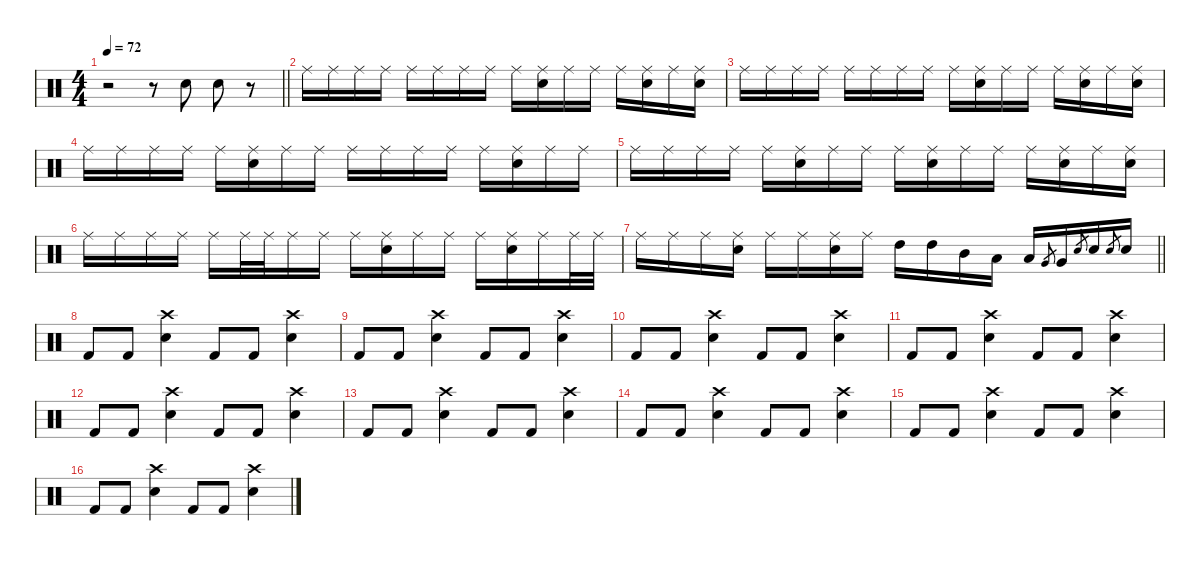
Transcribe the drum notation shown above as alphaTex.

\defaultSystemsLayout 4
\hideDynamics
\bracketExtendMode nobrackets
\singleTrackTrackNamePolicy hidden
\multiTrackTrackNamePolicy hidden
\otherSystemsTrackNameOrientation horizontal
\track ("Drums" "drm.") {defaultSystemsLayout 4 instrument percussion}
\staff {score}
\articulation defaults
\ts (4 4)
\tempo 72
\clef neutral
\barLineRight lightlight
\ks c
r.2{dy fff beam Down} r.8{beam Down} "Hand Clap (hit)".8{beam Down} "Hand Clap (hit)".8{beam Down} r.8{beam Down} |
"Ride (middle)".16{dy f beam Down} "Ride (middle)".16{dy mf beam Down} "Ride (middle)".16{dy mp beam Down} "Ride (middle)".16{dy ff beam Down} "Ride (middle)".16{dy mp beam Down} "Ride (middle)".16{beam Down} "Ride (middle)".16{dy f beam Down} "Ride (middle)".16{dy mp beam Down} "Ride (middle)".16{beam Down} ("Snare (hit) 2" "Ride (middle)").16{dy f beam Down} "Ride (middle)".16{dy mp beam Down} "Ride (middle)".16{beam Down} "Ride (middle)".16{dy f beam Down} ("Snare (hit) 2" "Ride (middle)").16{beam Down} "Ride (middle)".16{dy mf beam Down} ("Snare (hit) 2" "Ride (middle)").16{beam Down} |
"Ride (middle)".16{dy ff beam Down} "Ride (middle)".16{dy mp beam Down} "Ride (middle)".16{dy mf beam Down} "Ride (middle)".16{dy ff beam Down} "Ride (middle)".16{dy mp beam Down} "Ride (middle)".16{beam Down} "Ride (middle)".16{dy f beam Down} "Ride (middle)".16{dy mp beam Down} "Ride (middle)".16{dy f beam Down} ("Snare (hit) 2" "Ride (middle)").16{dy mf beam Down} "Ride (middle)".16{dy mp beam Down} "Ride (middle)".16{dy mf beam Down} "Ride (middle)".16{dy f beam Down} ("Snare (hit) 2" "Ride (middle)").16{dy mf beam Down} "Ride (middle)".16{dy ff beam Down} ("Snare (hit) 2" "Ride (middle)").16{dy mf beam Down} |
"Ride (middle)".16{dy f beam Down} "Ride (middle)".16{dy mp beam Down} "Ride (middle)".16{beam Down} "Ride (middle)".16{dy f beam Down} "Ride (middle)".16{dy mp beam Down} ("Snare (hit) 2" "Ride (middle)").16{dy f beam Down} "Ride (middle)".16{dy ff beam Down} "Ride (middle)".16{dy mf beam Down} "Ride (middle)".16{beam Down} "Ride (middle)".16{dy f beam Down} "Ride (middle)".16{dy mp beam Down} "Ride (middle)".16{dy f beam Down} "Ride (middle)".16{beam Down} ("Snare (hit) 2" "Ride (middle)").16{beam Down} "Ride (middle)".16{beam Down} "Ride (middle)".16{beam Down} |
"Ride (middle)".16{beam Down} "Ride (middle)".16{beam Down} "Ride (middle)".16{beam Down} "Ride (middle)".16{beam Down} "Ride (middle)".16{beam Down} ("Snare (hit) 2" "Ride (middle)").16{dy mf beam Down} "Ride (middle)".16{dy f beam Down} "Ride (middle)".16{beam Down} "Ride (middle)".16{beam Down} ("Snare (hit) 2" "Ride (middle)").16{beam Down} "Ride (middle)".16{dy mf beam Down} "Ride (middle)".16{dy ff beam Down} "Ride (middle)".16{dy mf beam Down} ("Snare (hit) 2" "Ride (middle)").16{beam Down} "Ride (middle)".16{dy ff beam Down} ("Snare (hit) 2" "Ride (middle)").16{dy mf beam Down} |
"Ride (middle)".16{beam Down} "Ride (middle)".16{dy f beam Down} "Ride (middle)".16{beam Down} "Ride (middle)".16{beam Down} "Ride (middle)".16{beam Down} "Ride (middle)".32{beam Down} "Ride (middle)".32{dy ff beam Down} "Ride (middle)".16{dy mp beam Down} "Ride (middle)".16{beam Down} "Ride (middle)".16{dy f beam Down} ("Snare (hit) 2" "Ride (middle)").16{beam Down} "Ride (middle)".16{beam Down} "Ride (middle)".16{dy ff beam Down} "Ride (middle)".16{dy f beam Down} ("Snare (hit) 2" "Ride (middle)").16{beam Down} "Ride (middle)".16{beam Down} "Ride (middle)".32{dy ff beam Down} "Ride (middle)".32{dy f beam Down} |
\barLineRight lightlight "Ride (middle)".16{dy mf beam Down} "Ride (middle)".16{dy f beam Down} "Ride (middle)".16{beam Down}
("Snare (hit) 2" "Ride (middle)").16{beam Down} "Ride (middle)".16{beam Down} "Ride (middle)".16{beam Down} ("Snare (hit) 2" "Ride (middle)").16{dy ff beam Down} "Ride (middle)".16{beam Down} "High Tom (hit)".16{beam Down} "High Tom (hit)".16{beam Down} "Mid Tom (hit)".16{dy fff beam Down} "Low Tom (hit)".16{dy ff beam Down} "Low Tom (hit)".16{beam Up} "Very Low Tom (hit)".8{gr dy f beam Up} "Very Low Tom (hit)".16{dy ff beam Up} "Electric Snare (hit)".8{gr dy mp beam Up} "Snare (hit) 2".16{dy ff beam Up} "Electric Snare (hit)".8{gr dy mp beam Up} "Snare (hit) 2".16{dy ff beam Up} |
"Kick (hit) 2".8{dy fff beam Up} "Kick (hit) 2".8{beam Up} ("Snare (hit) 2" "Crash high (hit)").4{beam Down} "Kick (hit) 2".8{dy f beam Up} "Kick (hit) 2".8{dy fff beam Up} ("Snare (hit) 2" "Crash high (hit)").4{beam Down} |
"Kick (hit) 2".8{beam Up} "Kick (hit) 2".8{beam Up} ("Snare (hit) 2" "Crash high (hit)").4{beam Down} "Kick (hit) 2".8{dy f beam Up} "Kick (hit) 2".8{dy fff beam Up} ("Snare (hit) 2" "Crash high (hit)").4{beam Down} |
"Kick (hit) 2".8{beam Up} "Kick (hit) 2".8{beam Up} ("Snare (hit) 2" "Crash high (hit)").4{beam Down} "Kick (hit) 2".8{dy f beam Up} "Kick (hit) 2".8{dy fff beam Up} ("Snare (hit) 2" "Crash high (hit)").4{beam Down} |
"Kick (hit) 2".8{beam Up} "Kick (hit) 2".8{beam Up} ("Snare (hit) 2" "Crash high (hit)").4{beam Down} "Kick (hit) 2".8{dy f beam Up} "Kick (hit) 2".8{dy fff beam Up} ("Snare (hit) 2" "Crash high (hit)").4{beam Down} |
"Kick (hit) 2".8{beam Up} "Kick (hit) 2".8{beam Up} ("Snare (hit) 2" "Crash high (hit)").4{beam Down} "Kick (hit) 2".8{dy f beam Up} "Kick (hit) 2".8{dy fff beam Up} ("Snare (hit) 2" "Crash high (hit)").4{beam Down} |
"Kick (hit) 2".8{beam Up} "Kick (hit) 2".8{beam Up} ("Snare (hit) 2" "Crash high (hit)").4{beam Down} "Kick (hit) 2".8{dy f beam Up} "Kick (hit) 2".8{dy fff beam Up} ("Snare (hit) 2" "Crash high (hit)").4{beam Down} |
"Kick (hit) 2".8{beam Up} "Kick (hit) 2".8{beam Up} ("Snare (hit) 2" "Crash high (hit)").4{beam Down} "Kick (hit) 2".8{dy f beam Up} "Kick (hit) 2".8{dy fff beam Up} ("Snare (hit) 2" "Crash high (hit)").4{beam Down} |
"Kick (hit) 2".8{beam Up} "Kick (hit) 2".8{beam Up} ("Snare (hit) 2" "Crash high (hit)").4{beam Down} "Kick (hit) 2".8{dy f beam Up} "Kick (hit) 2".8{dy fff beam Up} ("Snare (hit) 2" "Crash high (hit)").4{beam Down} |
"Kick (hit) 2".8{beam Up} "Kick (hit) 2".8{beam Up} ("Snare (hit) 2" "Crash high (hit)").4{beam Down} "Kick (hit) 2".8{dy f beam Up} "Kick (hit) 2".8{dy fff beam Up} ("Snare (hit) 2" "Crash high (hit)").4{beam Down}
